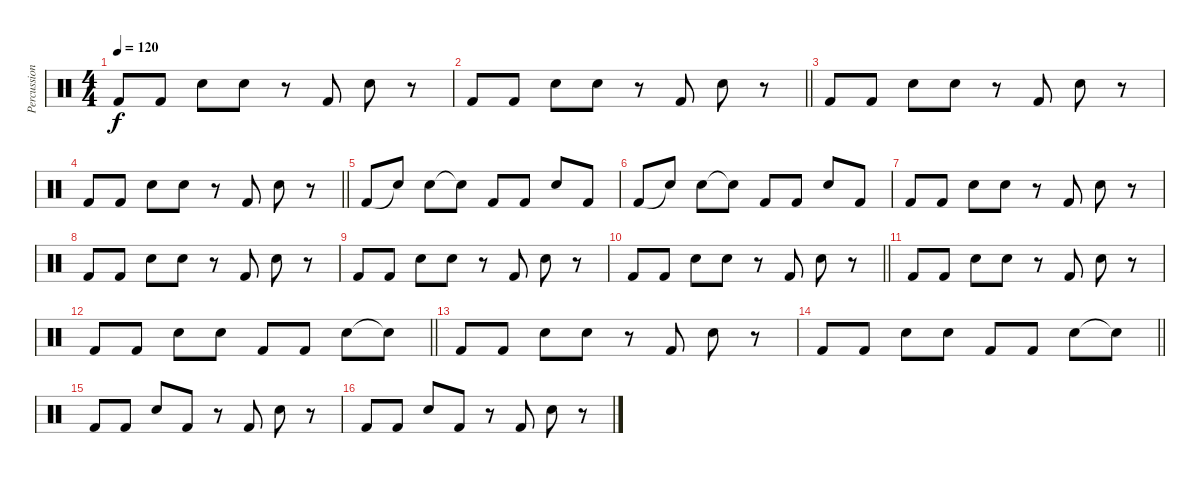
\track ("Percussion" "Percussion") {instrument percussion}
\staff {score}
\articulation defaults
\ts (4 4)
\tempo 120
\clef neutral
\ks c "Kick (hit) 2".8{dy f} "Kick (hit) 2".8 "Snare (hit) 2".8 "Snare (hit) 2".8
r.8 "Kick (hit) 2".8 "Snare (hit) 2".8 r.8 |
\barLineRight lightlight "Kick (hit) 2".8 "Kick (hit) 2".8 "Snare (hit) 2".8 "Snare (hit) 2".8
r.8 "Kick (hit) 2".8 "Snare (hit) 2".8 r.8 |
"Kick (hit) 2".8 "Kick (hit) 2".8 "Snare (hit) 2".8 "Snare (hit) 2".8 r.8 "Kick (hit) 2".8 "Snare (hit) 2".8 r.8 |
\barLineRight lightlight "Kick (hit) 2".8 "Kick (hit) 2".8 "Snare (hit) 2".8 "Snare (hit) 2".8
r.8 "Kick (hit) 2".8 "Snare (hit) 2".8 r.8 |
"Kick (hit) 2".8 "Snare (hit)"{t}.8 "Snare (hit) 2".8 "Snare (hit)"{t}.8 "Kick (hit) 2".8 "Kick (hit) 2".8 "Snare (hit) 2".8 "Kick (hit) 2".8 |
"Kick (hit) 2".8 "Snare (hit)"{t}.8 "Snare (hit) 2".8 "Snare (hit)"{t}.8 "Kick (hit) 2".8 "Kick (hit) 2".8 "Snare (hit) 2".8 "Kick (hit) 2".8 |
"Kick (hit) 2".8 "Kick (hit) 2".8 "Snare (hit) 2".8 "Snare (hit) 2".8 r.8 "Kick (hit) 2".8 "Snare (hit) 2".8 r.8 |
"Kick (hit) 2".8 "Kick (hit) 2".8 "Snare (hit) 2".8 "Snare (hit) 2".8 r.8 "Kick (hit) 2".8 "Snare (hit) 2".8 r.8 |
"Kick (hit) 2".8 "Kick (hit) 2".8 "Snare (hit) 2".8 "Snare (hit) 2".8 r.8 "Kick (hit) 2".8 "Snare (hit) 2".8 r.8 |
\barLineRight lightlight "Kick (hit) 2".8 "Kick (hit) 2".8 "Snare (hit) 2".8 "Snare (hit) 2".8
r.8 "Kick (hit) 2".8 "Snare (hit) 2".8 r.8 |
"Kick (hit) 2".8 "Kick (hit) 2".8 "Snare (hit) 2".8 "Snare (hit) 2".8 r.8 "Kick (hit) 2".8 "Snare (hit) 2".8 r.8 |
\barLineRight lightlight "Kick (hit) 2".8 "Kick (hit) 2".8 "Snare (hit) 2".8 "Snare (hit) 2".8 "Kick (hit) 2".8 "Kick (hit) 2".8 "Snare (hit) 2".8 "Snare (hit)"{t}.8
|
"Kick (hit) 2".8 "Kick (hit) 2".8 "Snare (hit) 2".8 "Snare (hit) 2".8 r.8 "Kick (hit) 2".8 "Snare (hit) 2".8 r.8 |
\barLineRight lightlight "Kick (hit) 2".8 "Kick (hit) 2".8 "Snare (hit) 2".8 "Snare (hit) 2".8 "Kick (hit) 2".8 "Kick (hit) 2".8 "Snare (hit) 2".8 "Snare (hit)"{t}.8
|
"Kick (hit) 2".8 "Kick (hit) 2".8 "Snare (hit) 2".8 "Kick (hit) 2".8 r.8 "Kick (hit) 2".8 "Snare (hit) 2".8 r.8 |
"Kick (hit) 2".8 "Kick (hit) 2".8 "Snare (hit) 2".8 "Kick (hit) 2".8 r.8 "Kick (hit) 2".8 "Snare (hit) 2".8 r.8
